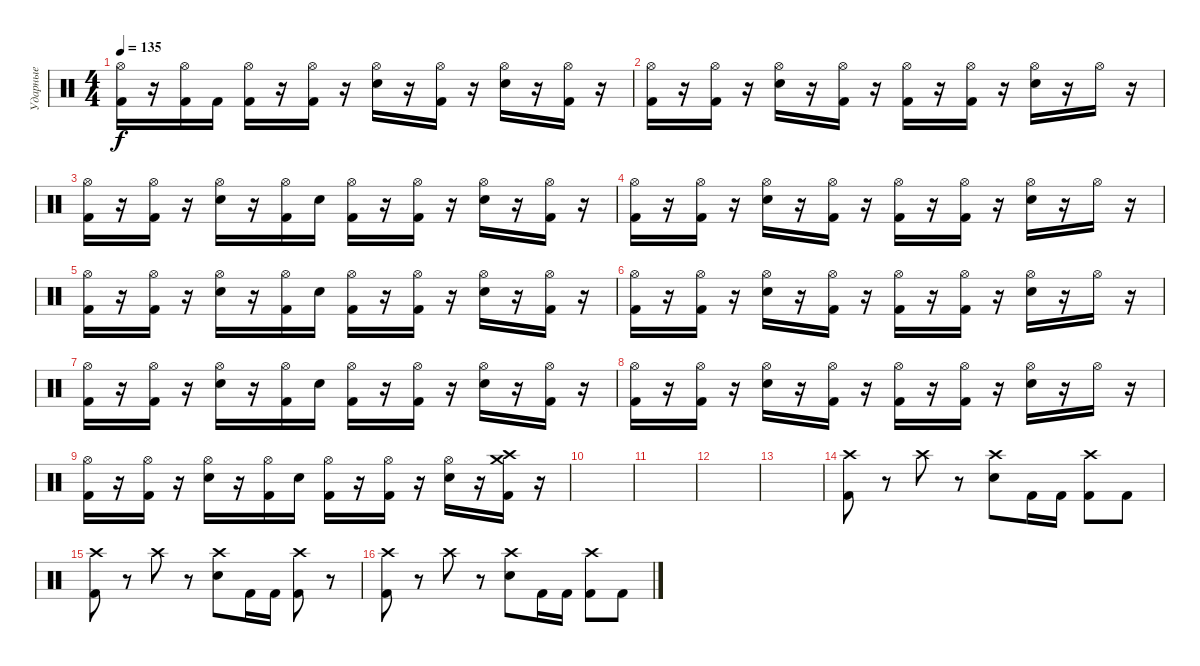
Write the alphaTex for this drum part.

\track ("Ударные" "Ударные") {instrument percussion}
\staff {score}
\articulation defaults
\ts (4 4)
\tempo 135
\clef neutral
\ks c
("Hi-Hat (open)" "Kick (hit) 2").16{dy f} r.16 ("Hi-Hat (open)" "Kick (hit) 2").16 "Kick (hit) 2".16 ("Kick (hit) 2" "Hi-Hat (open)").16 r.16 ("Kick (hit) 2" "Hi-Hat (open)").16 r.16 ("Electric Snare (hit)" "Hi-Hat (open)").16 r.16 ("Kick (hit) 2" "Hi-Hat (open)").16 r.16 ("Electric Snare (hit)" "Hi-Hat (open)").16 r.16 ("Kick (hit) 2" "Hi-Hat (open)").16 r.16 |
("Kick (hit) 2" "Hi-Hat (open)").16 r.16 ("Kick (hit) 2" "Hi-Hat (open)").16 r.16 ("Electric Snare (hit)" "Hi-Hat (open)").16 r.16 ("Kick (hit) 2" "Hi-Hat (open)").16 r.16 ("Kick (hit) 2" "Hi-Hat (open)").16 r.16 ("Kick (hit) 2" "Hi-Hat (open)").16 r.16 ("Electric Snare (hit)" "Hi-Hat (open)").16 r.16 "Hi-Hat (open)".16 r.16 |
("Kick (hit) 2" "Hi-Hat (open)").16 r.16 ("Kick (hit) 2" "Hi-Hat (open)").16 r.16 ("Electric Snare (hit)" "Hi-Hat (open)").16 r.16 ("Kick (hit) 2" "Hi-Hat (open)").16 "Electric Snare (hit)".16 ("Kick (hit) 2" "Hi-Hat (open)").16 r.16 ("Kick (hit) 2" "Hi-Hat (open)").16 r.16 ("Electric Snare (hit)" "Hi-Hat (open)").16 r.16 ("Kick (hit) 2" "Hi-Hat (open)").16 r.16 |
("Kick (hit) 2" "Hi-Hat (open)").16 r.16 ("Kick (hit) 2" "Hi-Hat (open)").16 r.16 ("Electric Snare (hit)" "Hi-Hat (open)").16 r.16 ("Kick (hit) 2" "Hi-Hat (open)").16 r.16 ("Kick (hit) 2" "Hi-Hat (open)").16 r.16 ("Kick (hit) 2" "Hi-Hat (open)").16 r.16 ("Electric Snare (hit)" "Hi-Hat (open)").16 r.16 "Hi-Hat (open)".16 r.16 |
("Kick (hit) 2" "Hi-Hat (open)").16 r.16 ("Kick (hit) 2" "Hi-Hat (open)").16 r.16 ("Electric Snare (hit)" "Hi-Hat (open)").16 r.16 ("Kick (hit) 2" "Hi-Hat (open)").16 "Electric Snare (hit)".16 ("Kick (hit) 2" "Hi-Hat (open)").16 r.16 ("Kick (hit) 2" "Hi-Hat (open)").16 r.16 ("Electric Snare (hit)" "Hi-Hat (open)").16 r.16 ("Kick (hit) 2" "Hi-Hat (open)").16 r.16 |
("Kick (hit) 2" "Hi-Hat (open)").16 r.16 ("Kick (hit) 2" "Hi-Hat (open)").16 r.16 ("Electric Snare (hit)" "Hi-Hat (open)").16 r.16 ("Kick (hit) 2" "Hi-Hat (open)").16 r.16 ("Kick (hit) 2" "Hi-Hat (open)").16 r.16 ("Kick (hit) 2" "Hi-Hat (open)").16 r.16 ("Electric Snare (hit)" "Hi-Hat (open)").16 r.16 "Hi-Hat (open)".16 r.16 |
("Kick (hit) 2" "Hi-Hat (open)").16 r.16 ("Kick (hit) 2" "Hi-Hat (open)").16 r.16 ("Electric Snare (hit)" "Hi-Hat (open)").16 r.16 ("Kick (hit) 2" "Hi-Hat (open)").16 "Electric Snare (hit)".16 ("Kick (hit) 2" "Hi-Hat (open)").16 r.16 ("Kick (hit) 2" "Hi-Hat (open)").16 r.16 ("Electric Snare (hit)" "Hi-Hat (open)").16 r.16 ("Kick (hit) 2" "Hi-Hat (open)").16 r.16 |
("Kick (hit) 2" "Hi-Hat (open)").16 r.16 ("Kick (hit) 2" "Hi-Hat (open)").16 r.16 ("Electric Snare (hit)" "Hi-Hat (open)").16 r.16 ("Kick (hit) 2" "Hi-Hat (open)").16 r.16 ("Kick (hit) 2" "Hi-Hat (open)").16 r.16 ("Kick (hit) 2" "Hi-Hat (open)").16 r.16 ("Electric Snare (hit)" "Hi-Hat (open)").16 r.16 "Hi-Hat (open)".16 r.16 |
("Kick (hit) 2" "Hi-Hat (open)").16 r.16 ("Kick (hit) 2" "Hi-Hat (open)").16 r.16 ("Electric Snare (hit)" "Hi-Hat (open)").16 r.16 ("Kick (hit) 2" "Hi-Hat (open)").16 "Electric Snare (hit)".16 ("Kick (hit) 2" "Hi-Hat (open)").16 r.16 ("Kick (hit) 2" "Hi-Hat (open)").16 r.16 ("Electric Snare (hit)" "Hi-Hat (open)").16 r.16 ("Kick (hit) 2" "Crash high (hit)" "Crash medium (hit)").16 r.16 |
|
|
|
|
("Kick (hit) 2" "Crash high (hit)").8 r.8 "Crash high (hit)".8 r.8 ("Electric Snare (hit)" "Crash high (hit)").8 "Kick (hit) 2".16 "Kick (hit) 2".16 ("Kick (hit) 2" "Crash high (hit)").8 "Kick (hit) 2".8 |
("Kick (hit) 2" "Crash high (hit)").8 r.8 "Crash high (hit)".8 r.8 ("Electric Snare (hit)" "Crash high (hit)").8 "Kick (hit) 2".16 "Kick (hit) 2".16 ("Kick (hit) 2" "Crash high (hit)").8 r.8 |
("Kick (hit) 2" "Crash high (hit)").8 r.8 "Crash high (hit)".8 r.8 ("Electric Snare (hit)" "Crash high (hit)").8 "Kick (hit) 2".16 "Kick (hit) 2".16 ("Kick (hit) 2" "Crash high (hit)").8 "Kick (hit) 2".8
